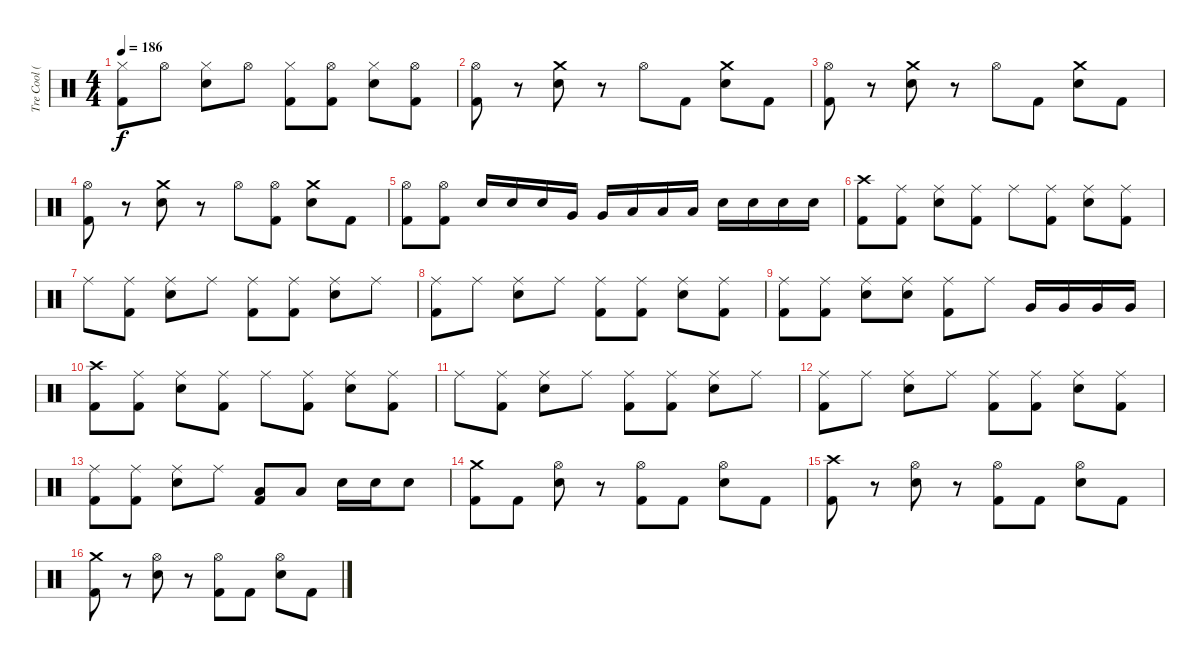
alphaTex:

\track ("Tre Cool (Drums)" "Tre Cool (") {instrument percussion}
\staff {score}
\articulation defaults
\ts (4 4)
\tempo 186
\clef neutral
\ks c
("Hi-Hat (closed)" "Kick (hit) 2").8{dy f} "Hi-Hat (open)".8 ("Hi-Hat (closed)" "Electric Snare (hit)").8 "Hi-Hat (open)".8 ("Hi-Hat (closed)" "Kick (hit) 2").8 ("Hi-Hat (open)" "Kick (hit) 2").8 ("Hi-Hat (closed)" "Electric Snare (hit)").8 ("Hi-Hat (open)" "Kick (hit) 2").8 |
("Kick (hit) 2" "Hi-Hat (open)").8 r.8 ("Snare (hit) 2" "Crash medium (hit)").8 r.8 "Hi-Hat (open)".8 "Kick (hit) 2".8 ("Snare (hit) 2" "Crash medium (hit)").8 "Kick (hit) 2".8 |
("Kick (hit) 2" "Hi-Hat (open)").8 r.8 ("Snare (hit) 2" "Crash medium (hit)").8 r.8 "Hi-Hat (open)".8 "Kick (hit) 2".8 ("Snare (hit) 2" "Crash medium (hit)").8 "Kick (hit) 2".8 |
("Kick (hit) 2" "Hi-Hat (open)").8 r.8 ("Snare (hit) 2" "Crash medium (hit)").8 r.8 "Hi-Hat (open)".8 ("Kick (hit) 2" "Hi-Hat (open)").8 ("Snare (hit) 2" "Crash medium (hit)").8 "Kick (hit) 2".8 |
("Hi-Hat (open)" "Kick (hit) 2").8 ("Hi-Hat (open)" "Kick (hit) 2").8 "Snare (hit) 2".16 "Snare (hit) 2".16 "Snare (hit) 2".16 "Very Low Tom (hit)".16 "Very Low Tom (hit)".16 "Low Floor Tom (hit)".16 "Low Floor Tom (hit)".16 "Low Floor Tom (hit)".16 "Snare (hit) 2".16 "Snare (hit) 2".16 "Snare (hit) 2".16 "Snare (hit) 2".16 |
("Crash high (hit)" "Kick (hit) 2").8 ("Ride (middle)" "Kick (hit) 2").8 ("Ride (middle)" "Snare (hit) 2").8 ("Ride (middle)" "Kick (hit) 2").8 "Ride (middle)".8 ("Ride (middle)" "Kick (hit) 2").8 ("Ride (middle)" "Snare (hit) 2").8 ("Ride (middle)" "Kick (hit) 2").8 |
"Ride (middle)".8 ("Ride (middle)" "Kick (hit) 2").8 ("Ride (middle)" "Snare (hit) 2").8 "Ride (middle)".8 ("Ride (middle)" "Kick (hit) 2").8 ("Ride (middle)" "Kick (hit) 2").8 ("Ride (middle)" "Snare (hit) 2").8 "Ride (middle)".8 |
("Ride (middle)" "Kick (hit) 2").8 "Ride (middle)".8 ("Ride (middle)" "Snare (hit) 2").8 "Ride (middle)".8 ("Ride (middle)" "Kick (hit) 2").8 ("Kick (hit) 2" "Ride (middle)").8 ("Ride (middle)" "Snare (hit) 2").8 ("Ride (middle)" "Kick (hit) 2").8 |
("Ride (middle)" "Kick (hit) 2").8 ("Ride (middle)" "Kick (hit) 2").8 ("Ride (middle)" "Snare (hit) 2").8 ("Ride (middle)" "Snare (hit) 2").8 ("Ride (middle)" "Kick (hit) 2").8 "Ride (middle)".8 "Very Low Tom (hit)".16 "Very Low Tom (hit)".16 "Very Low Tom (hit)".16 "Very Low Tom (hit)".16 |
("Crash high (hit)" "Kick (hit) 2").8 ("Ride (middle)" "Kick (hit) 2").8 ("Ride (middle)" "Snare (hit) 2").8 ("Ride (middle)" "Kick (hit) 2").8 "Ride (middle)".8 ("Ride (middle)" "Kick (hit) 2").8 ("Ride (middle)" "Snare (hit) 2").8 ("Ride (middle)" "Kick (hit) 2").8 |
"Ride (middle)".8 ("Kick (hit) 2" "Ride (middle)").8 ("Snare (hit) 2" "Ride (middle)").8 "Ride (middle)".8 ("Kick (hit) 2" "Ride (middle)").8 ("Kick (hit) 2" "Ride (middle)").8 ("Snare (hit) 2" "Ride (middle)").8 "Ride (middle)".8 |
("Kick (hit) 2" "Ride (middle)").8 "Ride (middle)".8 ("Snare (hit) 2" "Ride (middle)").8 "Ride (middle)".8 ("Kick (hit) 2" "Ride (middle)").8 ("Kick (hit) 2" "Ride (middle)").8 ("Snare (hit) 2" "Ride (middle)").8 ("Kick (hit) 2" "Ride (middle)").8 |
("Ride (middle)" "Kick (hit) 2").8 ("Ride (middle)" "Kick (hit) 2").8 ("Snare (hit) 2" "Ride (middle)").8 "Ride (middle)".8 ("Low Tom (hit)" "Kick (hit) 2").8 "Low Tom (hit)".8 "Snare (hit) 2".16 "Snare (hit) 2".16 "Snare (hit) 2".8 |
("Kick (hit) 2" "Crash medium (hit)").8 "Kick (hit) 2".8 ("Snare (hit) 2" "Hi-Hat (open)").8 r.8 ("Kick (hit) 2" "Hi-Hat (open)").8 "Kick (hit) 2".8 ("Snare (hit) 2" "Hi-Hat (open)").8 "Kick (hit) 2".8 |
("Kick (hit) 2" "Crash high (hit)").8 r.8 ("Snare (hit) 2" "Hi-Hat (open)").8 r.8 ("Kick (hit) 2" "Hi-Hat (open)").8 "Kick (hit) 2".8 ("Snare (hit) 2" "Hi-Hat (open)").8 "Kick (hit) 2".8 |
("Crash medium (hit)" "Kick (hit) 2").8 r.8 ("Hi-Hat (open)" "Snare (hit) 2").8 r.8 ("Hi-Hat (open)" "Kick (hit) 2").8 "Kick (hit) 2".8 ("Hi-Hat (open)" "Snare (hit) 2").8 "Kick (hit) 2".8
